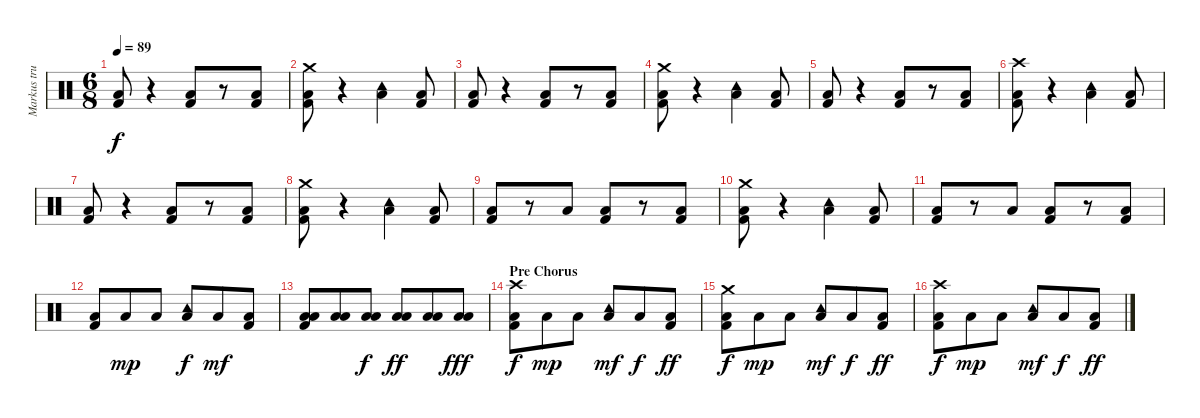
\track ("Markus trummor" "Markus tru") {instrument percussion}
\staff {score}
\articulation defaults
\ts (6 8)
\tempo 89
\clef neutral
\ks c
("Low Floor Tom (hit)" "Kick (hit) 2").8{dy f} r.4 ("Low Floor Tom (hit)" "Kick (hit) 2").8 r.8 ("Low Tom (hit)" "Kick (hit) 2").8 |
("Crash medium (hit)" "Low Floor Tom (hit)" "Kick (hit) 2").8 r.4 ("Tambourine (hit)" "Low Tom (hit)").4 ("Low Tom (hit)" "Kick (hit) 2").8 |
("Low Floor Tom (hit)" "Kick (hit) 2").8 r.4 ("Low Floor Tom (hit)" "Kick (hit) 2").8 r.8 ("Low Tom (hit)" "Kick (hit) 2").8 |
("Crash medium (hit)" "Low Floor Tom (hit)" "Kick (hit) 2").8 r.4 ("Tambourine (hit)" "Low Tom (hit)").4 ("Low Tom (hit)" "Kick (hit) 2").8 |
("Low Floor Tom (hit)" "Kick (hit) 2").8 r.4 ("Low Floor Tom (hit)" "Kick (hit) 2").8 r.8 ("Low Tom (hit)" "Kick (hit) 2").8 |
("Crash high (hit)" "Low Floor Tom (hit)" "Kick (hit) 2").8 r.4 ("Tambourine (hit)" "Low Tom (hit)").4 ("Low Tom (hit)" "Kick (hit) 2").8 |
("Low Floor Tom (hit)" "Kick (hit) 2").8 r.4 ("Low Floor Tom (hit)" "Kick (hit) 2").8 r.8 ("Low Tom (hit)" "Kick (hit) 2").8 |
("Crash medium (hit)" "Low Floor Tom (hit)" "Kick (hit) 2").8 r.4 ("Tambourine (hit)" "Low Tom (hit)").4 ("Low Tom (hit)" "Kick (hit) 2").8 |
("Low Floor Tom (hit)" "Kick (hit) 2").8 r.8 "Low Floor Tom (hit)".8 ("Low Floor Tom (hit)" "Kick (hit) 2").8 r.8 ("Low Tom (hit)" "Kick (hit) 2").8 |
("Crash medium (hit)" "Low Floor Tom (hit)" "Kick (hit) 2").8 r.4 ("Tambourine (hit)" "Low Tom (hit)").4 ("Low Tom (hit)" "Kick (hit) 2").8 |
("Low Floor Tom (hit)" "Kick (hit) 2").8 r.8 "Low Floor Tom (hit)".8 ("Low Floor Tom (hit)" "Kick (hit) 2").8 r.8 ("Low Tom (hit)" "Kick (hit) 2").8 |
("Low Floor Tom (hit)" "Kick (hit) 2").8 "Low Floor Tom (hit)".8{dy mp} "Low Floor Tom (hit)".8 ("Tambourine (hit)" "Low Floor Tom (hit)").8{dy f} "Low Floor Tom (hit)".8{dy mf} ("Low Floor Tom (hit)" "Kick (hit) 2").8 |
("Low Tom (hit)" "Low Floor Tom (hit)" "Kick (hit) 2").8 ("Low Tom (hit)" "Low Floor Tom (hit)").8 ("Low Tom (hit)" "Low Floor Tom (hit)").8{dy f} ("Low Tom (hit)" "Low Floor Tom (hit)").8{dy ff} ("Low Tom (hit)" "Low Floor Tom (hit)").8 ("Low Tom (hit)" "Low Floor Tom (hit)").8{dy fff} |
\section ("" "Pre Chorus")
("Crash high (hit)" "Low Floor Tom (hit)" "Kick (hit) 2").8{dy f} "Low Floor Tom (hit)".8{dy mp} "Low Floor Tom (hit)".8 ("Tambourine (hit)" "Low Floor Tom (hit)").8{dy mf} "Low Floor Tom (hit)".8{dy f} ("Low Floor Tom (hit)" "Kick (hit) 2").8{dy ff} |
("Crash medium (hit)" "Low Floor Tom (hit)" "Kick (hit) 2").8{dy f} "Low Floor Tom (hit)".8{dy mp} "Low Floor Tom (hit)".8 ("Tambourine (hit)" "Low Floor Tom (hit)").8{dy mf} "Low Floor Tom (hit)".8{dy f} ("Low Floor Tom (hit)" "Kick (hit) 2").8{dy ff} |
("Crash high (hit)" "Low Floor Tom (hit)" "Kick (hit) 2").8{dy f} "Low Floor Tom (hit)".8{dy mp} "Low Floor Tom (hit)".8 ("Tambourine (hit)" "Low Floor Tom (hit)").8{dy mf} "Low Floor Tom (hit)".8{dy f} ("Low Floor Tom (hit)" "Kick (hit) 2").8{dy ff}
